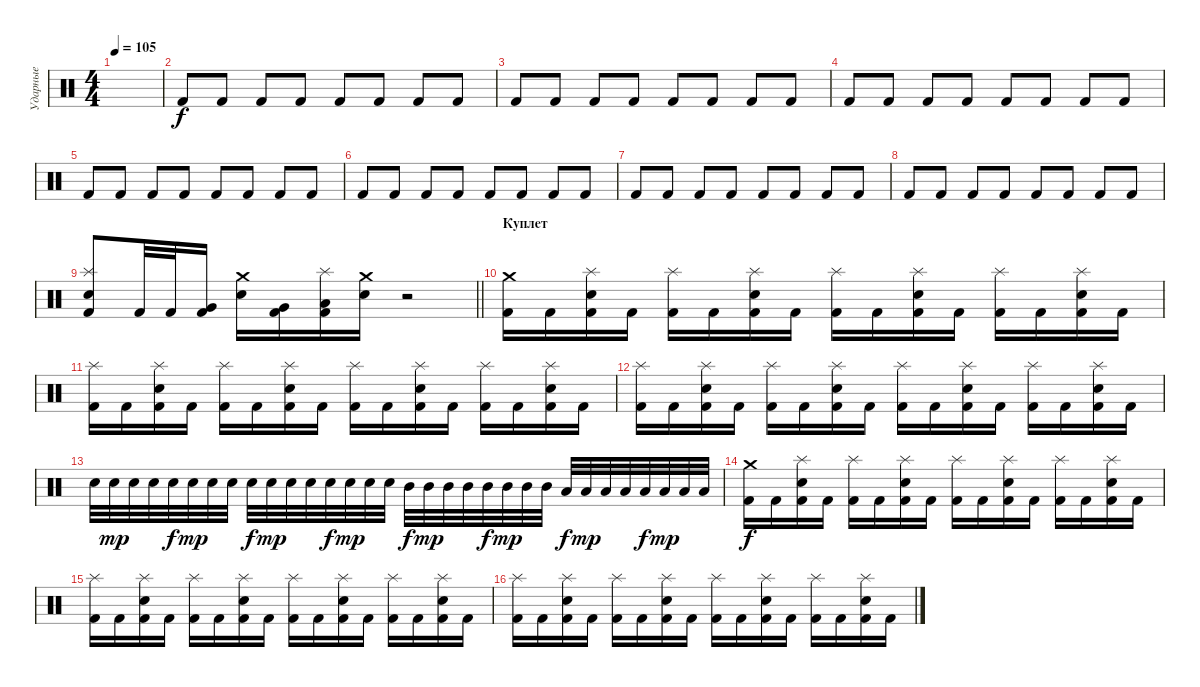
\track ("Ударные" "Ударные") {instrument percussion}
\staff {score}
\articulation defaults
\ts (4 4)
\tempo 105
\clef neutral
\ks c
|
"Kick (hit) 2".8 "Kick (hit) 2".8 "Kick (hit) 2".8 "Kick (hit) 2".8 "Kick (hit) 2".8 "Kick (hit) 2".8 "Kick (hit) 2".8 "Kick (hit) 2".8 |
"Kick (hit) 2".8 "Kick (hit) 2".8 "Kick (hit) 2".8 "Kick (hit) 2".8 "Kick (hit) 2".8 "Kick (hit) 2".8 "Kick (hit) 2".8 "Kick (hit) 2".8 |
"Kick (hit) 2".8 "Kick (hit) 2".8 "Kick (hit) 2".8 "Kick (hit) 2".8 "Kick (hit) 2".8 "Kick (hit) 2".8 "Kick (hit) 2".8 "Kick (hit) 2".8 |
"Kick (hit) 2".8 "Kick (hit) 2".8 "Kick (hit) 2".8 "Kick (hit) 2".8 "Kick (hit) 2".8 "Kick (hit) 2".8 "Kick (hit) 2".8 "Kick (hit) 2".8 |
"Kick (hit) 2".8 "Kick (hit) 2".8 "Kick (hit) 2".8 "Kick (hit) 2".8 "Kick (hit) 2".8 "Kick (hit) 2".8 "Kick (hit) 2".8 "Kick (hit) 2".8 |
"Kick (hit) 2".8 "Kick (hit) 2".8 "Kick (hit) 2".8 "Kick (hit) 2".8 "Kick (hit) 2".8 "Kick (hit) 2".8 "Kick (hit) 2".8 "Kick (hit) 2".8 |
"Kick (hit) 2".8 "Kick (hit) 2".8 "Kick (hit) 2".8 "Kick (hit) 2".8 "Kick (hit) 2".8 "Kick (hit) 2".8 "Kick (hit) 2".8 "Kick (hit) 2".8 |
\barLineRight lightlight
("Splash (hit)" "Electric Snare (hit)" "Kick (hit) 2").8{dy f} "Kick (hit) 2".32 "Kick (hit) 2".32 ("Very Low Tom (hit)" "Kick (hit) 2").16 ("Crash medium (hit)" "Electric Snare (hit)").16 ("Very Low Tom (hit)" "Kick (hit) 2").16 ("Splash (hit)" "Low Floor Tom (hit)" "Kick (hit) 2").16 ("Crash medium (hit)" "Electric Snare (hit)").16 r.2 |
\section ("" "Куплет")
("Crash medium (hit)" "Kick (hit) 2").16 "Kick (hit) 2".16 ("Splash (hit)" "Electric Snare (hit)" "Kick (hit) 2").16 "Kick (hit) 2".16 ("Splash (hit)" "Kick (hit) 2").16 "Kick (hit) 2".16 ("Splash (hit)" "Electric Snare (hit)" "Kick (hit) 2").16 "Kick (hit) 2".16 ("Splash (hit)" "Kick (hit) 2").16 "Kick (hit) 2".16 ("Splash (hit)" "Electric Snare (hit)" "Kick (hit) 2").16 "Kick (hit) 2".16 ("Splash (hit)" "Kick (hit) 2").16 "Kick (hit) 2".16 ("Splash (hit)" "Electric Snare (hit)" "Kick (hit) 2").16 "Kick (hit) 2".16 |
("Splash (hit)" "Kick (hit) 2").16 "Kick (hit) 2".16 ("Splash (hit)" "Electric Snare (hit)" "Kick (hit) 2").16 "Kick (hit) 2".16 ("Splash (hit)" "Kick (hit) 2").16 "Kick (hit) 2".16 ("Splash (hit)" "Electric Snare (hit)" "Kick (hit) 2").16 "Kick (hit) 2".16 ("Splash (hit)" "Kick (hit) 2").16 "Kick (hit) 2".16 ("Splash (hit)" "Electric Snare (hit)" "Kick (hit) 2").16 "Kick (hit) 2".16 ("Splash (hit)" "Kick (hit) 2").16 "Kick (hit) 2".16 ("Splash (hit)" "Electric Snare (hit)" "Kick (hit) 2").16 "Kick (hit) 2".16 |
("Splash (hit)" "Kick (hit) 2").16 "Kick (hit) 2".16 ("Splash (hit)" "Electric Snare (hit)" "Kick (hit) 2").16 "Kick (hit) 2".16 ("Splash (hit)" "Kick (hit) 2").16 "Kick (hit) 2".16 ("Splash (hit)" "Electric Snare (hit)" "Kick (hit) 2").16 "Kick (hit) 2".16 ("Splash (hit)" "Kick (hit) 2").16 "Kick (hit) 2".16 ("Splash (hit)" "Electric Snare (hit)" "Kick (hit) 2").16 "Kick (hit) 2".16 ("Splash (hit)" "Kick (hit) 2").16 "Kick (hit) 2".16 ("Splash (hit)" "Electric Snare (hit)" "Kick (hit) 2").16 "Kick (hit) 2".16 |
"Electric Snare (hit)".32 "Electric Snare (hit)".32{dy mp} "Electric Snare (hit)".32 "Electric Snare (hit)".32 "Electric Snare (hit)".32{dy f} "Electric Snare (hit)".32{dy mp} "Electric Snare (hit)".32 "Electric Snare (hit)".32 "Electric Snare (hit)".32{dy f} "Electric Snare (hit)".32{dy mp} "Electric Snare (hit)".32 "Electric Snare (hit)".32 "Electric Snare (hit)".32{dy f} "Electric Snare (hit)".32{dy mp} "Electric Snare (hit)".32 "Electric Snare (hit)".32 "Mid Tom (hit)".32{dy f} "Mid Tom (hit)".32{dy mp} "Mid Tom (hit)".32 "Mid Tom (hit)".32 "Mid Tom (hit)".32{dy f} "Mid Tom (hit)".32{dy mp} "Mid Tom (hit)".32 "Mid Tom (hit)".32 "Low Tom (hit)".32{dy f} "Low Tom (hit)".32{dy mp} "Low Tom (hit)".32 "Low Tom (hit)".32 "Low Tom (hit)".32{dy f} "Low Tom (hit)".32{dy mp} "Low Tom (hit)".32 "Low Tom (hit)".32 |
("Crash medium (hit)" "Kick (hit) 2").16{dy f} "Kick (hit) 2".16 ("Splash (hit)" "Electric Snare (hit)" "Kick (hit) 2").16 "Kick (hit) 2".16 ("Splash (hit)" "Kick (hit) 2").16 "Kick (hit) 2".16 ("Splash (hit)" "Electric Snare (hit)" "Kick (hit) 2").16 "Kick (hit) 2".16 ("Splash (hit)" "Kick (hit) 2").16 "Kick (hit) 2".16 ("Splash (hit)" "Electric Snare (hit)" "Kick (hit) 2").16 "Kick (hit) 2".16 ("Splash (hit)" "Kick (hit) 2").16 "Kick (hit) 2".16 ("Splash (hit)" "Electric Snare (hit)" "Kick (hit) 2").16 "Kick (hit) 2".16 |
("Splash (hit)" "Kick (hit) 2").16 "Kick (hit) 2".16 ("Splash (hit)" "Electric Snare (hit)" "Kick (hit) 2").16 "Kick (hit) 2".16 ("Splash (hit)" "Kick (hit) 2").16 "Kick (hit) 2".16 ("Splash (hit)" "Electric Snare (hit)" "Kick (hit) 2").16 "Kick (hit) 2".16 ("Splash (hit)" "Kick (hit) 2").16 "Kick (hit) 2".16 ("Splash (hit)" "Electric Snare (hit)" "Kick (hit) 2").16 "Kick (hit) 2".16 ("Splash (hit)" "Kick (hit) 2").16 "Kick (hit) 2".16 ("Splash (hit)" "Electric Snare (hit)" "Kick (hit) 2").16 "Kick (hit) 2".16 |
("Splash (hit)" "Kick (hit) 2").16 "Kick (hit) 2".16 ("Splash (hit)" "Electric Snare (hit)" "Kick (hit) 2").16 "Kick (hit) 2".16 ("Splash (hit)" "Kick (hit) 2").16 "Kick (hit) 2".16 ("Splash (hit)" "Electric Snare (hit)" "Kick (hit) 2").16 "Kick (hit) 2".16 ("Splash (hit)" "Kick (hit) 2").16 "Kick (hit) 2".16 ("Splash (hit)" "Electric Snare (hit)" "Kick (hit) 2").16 "Kick (hit) 2".16 ("Splash (hit)" "Kick (hit) 2").16 "Kick (hit) 2".16 ("Splash (hit)" "Electric Snare (hit)" "Kick (hit) 2").16 "Kick (hit) 2".16
